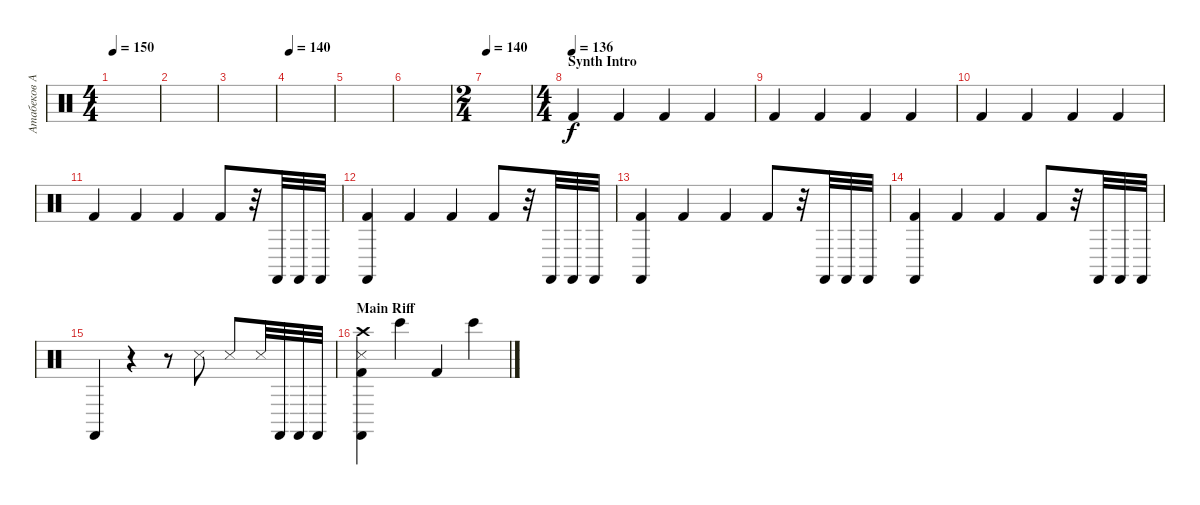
\track ("Атабеков Андрей - Барабаны" "Атабеков А") {instrument percussion}
\staff {score}
\articulation defaults
\ts (4 4)
\tempo 150
\clef neutral
\ks c
|
|
|
\tempo 140
|
|
|
\ts (2 4)
\tempo 140
|
\ts (4 4)
\section ("" "Synth Intro")
\tempo (136)
"Kick (hit) 2".4 "Kick (hit) 2".4 "Kick (hit) 2".4 "Kick (hit) 2".4 |
"Kick (hit) 2".4 "Kick (hit) 2".4 "Kick (hit) 2".4 "Kick (hit) 2".4 |
"Kick (hit) 2".4 "Kick (hit) 2".4 "Kick (hit) 2".4 "Kick (hit) 2".4 |
"Kick (hit) 2".4 "Kick (hit) 2".4 "Kick (hit) 2".4 "Kick (hit) 2".8 r.32 "Castanets (hit)".32 "Castanets (hit)".32 "Castanets (hit)".32 |
("Kick (hit) 2" "Castanets (hit)").4 "Kick (hit) 2".4 "Kick (hit) 2".4 "Kick (hit) 2".8 r.32 "Castanets (hit)".32 "Castanets (hit)".32 "Castanets (hit)".32 |
("Kick (hit) 2" "Castanets (hit)").4 "Kick (hit) 2".4 "Kick (hit) 2".4 "Kick (hit) 2".8 r.32 "Castanets (hit)".32 "Castanets (hit)".32 "Castanets (hit)".32 |
("Kick (hit) 2" "Castanets (hit)").4 "Kick (hit) 2".4 "Kick (hit) 2".4 "Kick (hit) 2".8 r.32 "Castanets (hit)".32 "Castanets (hit)".32 "Castanets (hit)".32 |
"Castanets (hit)".4 r.4 r.8 "Metronome (hit)".8 "Metronome (hit)".8 "Metronome (hit)".32 "Castanets (hit)".32 "Castanets (hit)".32 "Castanets (hit)".32 |
\section ("" "Main Riff")
("Kick (hit) 2" "Castanets (hit)" "Metronome (hit)" "Crash high (hit)").4 "Bongo High (hit)".4 "Kick (hit) 2".4 "Bongo High (hit)".4
